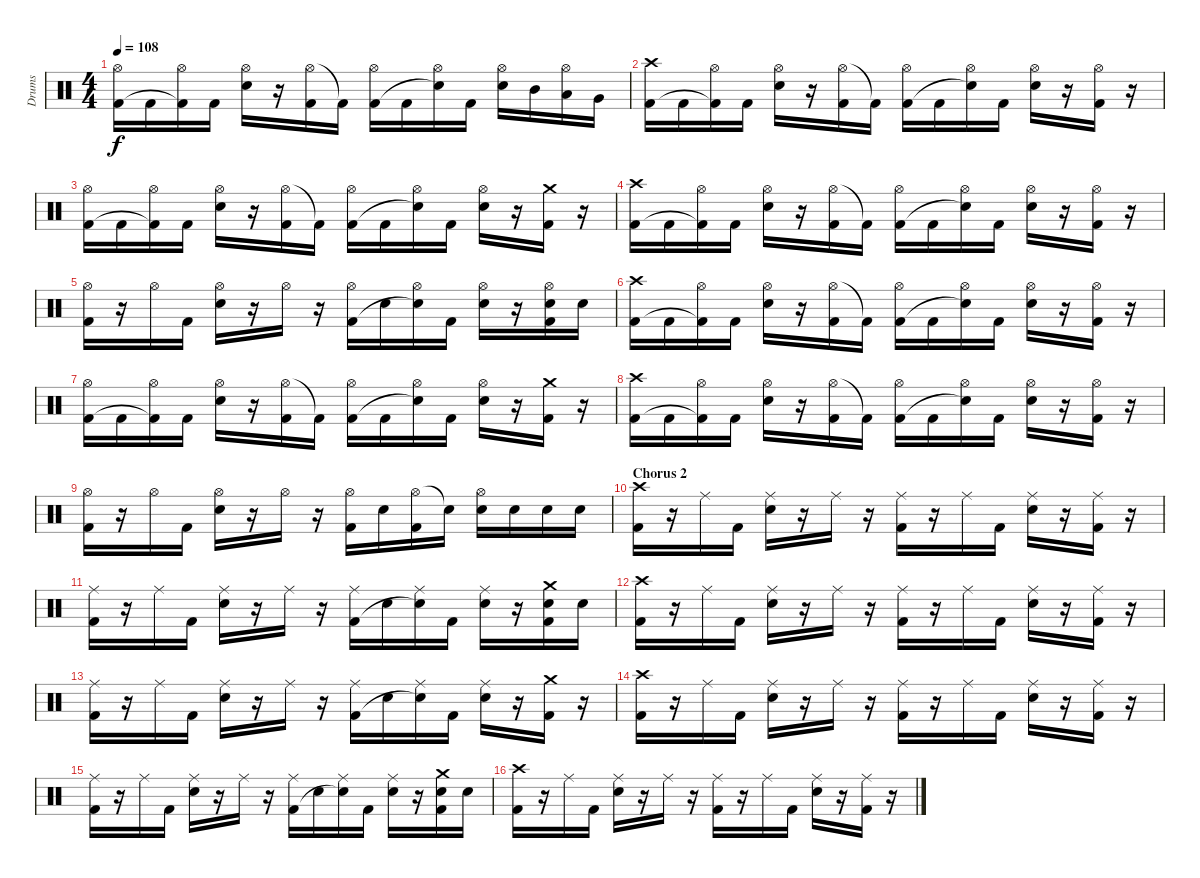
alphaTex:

\track ("Drums" "Drums") {instrument percussion}
\staff {score}
\articulation defaults
\ts (4 4)
\tempo 108
\clef neutral
\ks c
("Hi-Hat (open)" "Kick (hit) 2").16{dy f} "Kick (hit) 2".16 ("Hi-Hat (open)" "Kick (hit) 2"{t}).16 "Kick (hit) 2".16 ("Hi-Hat (open)" "Electric Snare (hit)").16 r.16 ("Hi-Hat (open)" "Kick (hit) 2").16 "Kick (hit) 2"{t}.16 ("Hi-Hat (open)" "Kick (hit) 2").16 "Kick (hit) 2".16 ("Hi-Hat (open)" "Electric Snare (hit)"{t}).16 "Kick (hit) 2".16 ("Hi-Hat (open)" "Electric Snare (hit)").16 "Mid Tom (hit)".16 ("Hi-Hat (open)" "Low Tom (hit)").16 "Very Low Tom (hit)".16 |
("Crash high (hit)" "Kick (hit) 2").16 "Kick (hit) 2".16 ("Hi-Hat (open)" "Kick (hit) 2"{t}).16 "Kick (hit) 2".16 ("Hi-Hat (open)" "Electric Snare (hit)").16 r.16 ("Hi-Hat (open)" "Kick (hit) 2").16 "Kick (hit) 2"{t}.16 ("Hi-Hat (open)" "Kick (hit) 2").16 "Kick (hit) 2".16 ("Hi-Hat (open)" "Electric Snare (hit)"{t}).16 "Kick (hit) 2".16 ("Hi-Hat (open)" "Electric Snare (hit)").16 r.16 ("Hi-Hat (open)" "Kick (hit) 2").16 r.16 |
("Hi-Hat (open)" "Kick (hit) 2").16 "Kick (hit) 2".16 ("Hi-Hat (open)" "Kick (hit) 2"{t}).16 "Kick (hit) 2".16 ("Hi-Hat (open)" "Electric Snare (hit)").16 r.16 ("Hi-Hat (open)" "Kick (hit) 2").16 "Kick (hit) 2"{t}.16 ("Hi-Hat (open)" "Kick (hit) 2").16 "Kick (hit) 2".16 ("Hi-Hat (open)" "Electric Snare (hit)"{t}).16 "Kick (hit) 2".16 ("Hi-Hat (open)" "Electric Snare (hit)").16 r.16 ("Crash medium (hit)" "Kick (hit) 2").16 r.16 |
("Crash high (hit)" "Kick (hit) 2").16 "Kick (hit) 2".16 ("Hi-Hat (open)" "Kick (hit) 2"{t}).16 "Kick (hit) 2".16 ("Hi-Hat (open)" "Electric Snare (hit)").16 r.16 ("Hi-Hat (open)" "Kick (hit) 2").16 "Kick (hit) 2"{t}.16 ("Hi-Hat (open)" "Kick (hit) 2").16 "Kick (hit) 2".16 ("Hi-Hat (open)" "Electric Snare (hit)"{t}).16 "Kick (hit) 2".16 ("Hi-Hat (open)" "Electric Snare (hit)").16 r.16 ("Hi-Hat (open)" "Kick (hit) 2").16 r.16 |
("Hi-Hat (open)" "Kick (hit) 2").16 r.16 "Hi-Hat (open)".16 "Kick (hit) 2".16 ("Hi-Hat (open)" "Electric Snare (hit)").16 r.16 "Hi-Hat (open)".16 r.16 ("Hi-Hat (open)" "Kick (hit) 2").16 "Electric Snare (hit)".16 ("Hi-Hat (open)" "Electric Snare (hit)"{t}).16 "Kick (hit) 2".16 ("Hi-Hat (open)" "Electric Snare (hit)").16 r.16 ("Hi-Hat (open)" "Electric Snare (hit)" "Kick (hit) 2").16 "Electric Snare (hit)".16 |
("Crash high (hit)" "Kick (hit) 2").16 "Kick (hit) 2".16 ("Hi-Hat (open)" "Kick (hit) 2"{t}).16 "Kick (hit) 2".16 ("Hi-Hat (open)" "Electric Snare (hit)").16 r.16 ("Hi-Hat (open)" "Kick (hit) 2").16 "Kick (hit) 2"{t}.16 ("Hi-Hat (open)" "Kick (hit) 2").16 "Kick (hit) 2".16 ("Hi-Hat (open)" "Electric Snare (hit)"{t}).16 "Kick (hit) 2".16 ("Hi-Hat (open)" "Electric Snare (hit)").16 r.16 ("Hi-Hat (open)" "Kick (hit) 2").16 r.16 |
("Hi-Hat (open)" "Kick (hit) 2").16 "Kick (hit) 2".16 ("Hi-Hat (open)" "Kick (hit) 2"{t}).16 "Kick (hit) 2".16 ("Hi-Hat (open)" "Electric Snare (hit)").16 r.16 ("Hi-Hat (open)" "Kick (hit) 2").16 "Kick (hit) 2"{t}.16 ("Hi-Hat (open)" "Kick (hit) 2").16 "Kick (hit) 2".16 ("Hi-Hat (open)" "Electric Snare (hit)"{t}).16 "Kick (hit) 2".16 ("Hi-Hat (open)" "Electric Snare (hit)").16 r.16 ("Crash medium (hit)" "Kick (hit) 2").16 r.16 |
("Crash high (hit)" "Kick (hit) 2").16 "Kick (hit) 2".16 ("Hi-Hat (open)" "Kick (hit) 2"{t}).16 "Kick (hit) 2".16 ("Hi-Hat (open)" "Electric Snare (hit)").16 r.16 ("Hi-Hat (open)" "Kick (hit) 2").16 "Kick (hit) 2"{t}.16 ("Hi-Hat (open)" "Kick (hit) 2").16 "Kick (hit) 2".16 ("Hi-Hat (open)" "Electric Snare (hit)"{t}).16 "Kick (hit) 2".16 ("Hi-Hat (open)" "Electric Snare (hit)").16 r.16 ("Hi-Hat (open)" "Kick (hit) 2").16 r.16 |
("Hi-Hat (open)" "Kick (hit) 2").16 r.16 "Hi-Hat (open)".16 "Kick (hit) 2".16 ("Hi-Hat (open)" "Electric Snare (hit)").16 r.16 "Hi-Hat (open)".16 r.16 ("Hi-Hat (open)" "Kick (hit) 2").16 "Electric Snare (hit)".16 ("Hi-Hat (open)" "Kick (hit) 2").16 "Electric Snare (hit)"{t}.16 ("Hi-Hat (open)" "Electric Snare (hit)").16 "Electric Snare (hit)".16 "Electric Snare (hit)".16 "Electric Snare (hit)".16 |
\section ("" "Chorus 2")
("Crash high (hit)" "Kick (hit) 2").16 r.16 "Ride (middle)".16 "Kick (hit) 2".16 ("Ride (middle)" "Electric Snare (hit)").16 r.16 "Ride (middle)".16 r.16 ("Ride (middle)" "Kick (hit) 2").16 r.16 "Ride (middle)".16 "Kick (hit) 2".16 ("Ride (middle)" "Electric Snare (hit)").16 r.16 ("Ride (middle)" "Kick (hit) 2").16 r.16 |
("Ride (middle)" "Kick (hit) 2").16 r.16 "Ride (middle)".16 "Kick (hit) 2".16 ("Ride (middle)" "Electric Snare (hit)").16 r.16 "Ride (middle)".16 r.16 ("Ride (middle)" "Kick (hit) 2").16 "Electric Snare (hit)".16 ("Ride (middle)" "Electric Snare (hit)"{t}).16 "Kick (hit) 2".16 ("Ride (middle)" "Electric Snare (hit)").16 r.16 ("Crash medium (hit)" "Electric Snare (hit)" "Kick (hit) 2").16 "Electric Snare (hit)".16 |
("Crash high (hit)" "Kick (hit) 2").16 r.16 "Ride (middle)".16 "Kick (hit) 2".16 ("Ride (middle)" "Electric Snare (hit)").16 r.16 "Ride (middle)".16 r.16 ("Ride (middle)" "Kick (hit) 2").16 r.16 "Ride (middle)".16 "Kick (hit) 2".16 ("Ride (middle)" "Electric Snare (hit)").16 r.16 ("Ride (middle)" "Kick (hit) 2").16 r.16 |
("Ride (middle)" "Kick (hit) 2").16 r.16 "Ride (middle)".16 "Kick (hit) 2".16 ("Ride (middle)" "Electric Snare (hit)").16 r.16 "Ride (middle)".16 r.16 ("Ride (middle)" "Kick (hit) 2").16 "Electric Snare (hit)".16 ("Ride (middle)" "Electric Snare (hit)"{t}).16 "Kick (hit) 2".16 ("Ride (middle)" "Electric Snare (hit)").16 r.16 ("Crash medium (hit)" "Kick (hit) 2").16 r.16 |
("Crash high (hit)" "Kick (hit) 2").16 r.16 "Ride (middle)".16 "Kick (hit) 2".16 ("Ride (middle)" "Electric Snare (hit)").16 r.16 "Ride (middle)".16 r.16 ("Ride (middle)" "Kick (hit) 2").16 r.16 "Ride (middle)".16 "Kick (hit) 2".16 ("Ride (middle)" "Electric Snare (hit)").16 r.16 ("Ride (middle)" "Kick (hit) 2").16 r.16 |
("Ride (middle)" "Kick (hit) 2").16 r.16 "Ride (middle)".16 "Kick (hit) 2".16 ("Ride (middle)" "Electric Snare (hit)").16 r.16 "Ride (middle)".16 r.16 ("Ride (middle)" "Kick (hit) 2").16 "Electric Snare (hit)".16 ("Ride (middle)" "Electric Snare (hit)"{t}).16 "Kick (hit) 2".16 ("Ride (middle)" "Electric Snare (hit)").16 r.16 ("Crash medium (hit)" "Electric Snare (hit)" "Kick (hit) 2").16 "Electric Snare (hit)".16 |
("Crash high (hit)" "Kick (hit) 2").16 r.16 "Ride (middle)".16 "Kick (hit) 2".16 ("Ride (middle)" "Electric Snare (hit)").16 r.16 "Ride (middle)".16 r.16 ("Ride (middle)" "Kick (hit) 2").16 r.16 "Ride (middle)".16 "Kick (hit) 2".16 ("Ride (middle)" "Electric Snare (hit)").16 r.16 ("Ride (middle)" "Kick (hit) 2").16 r.16
